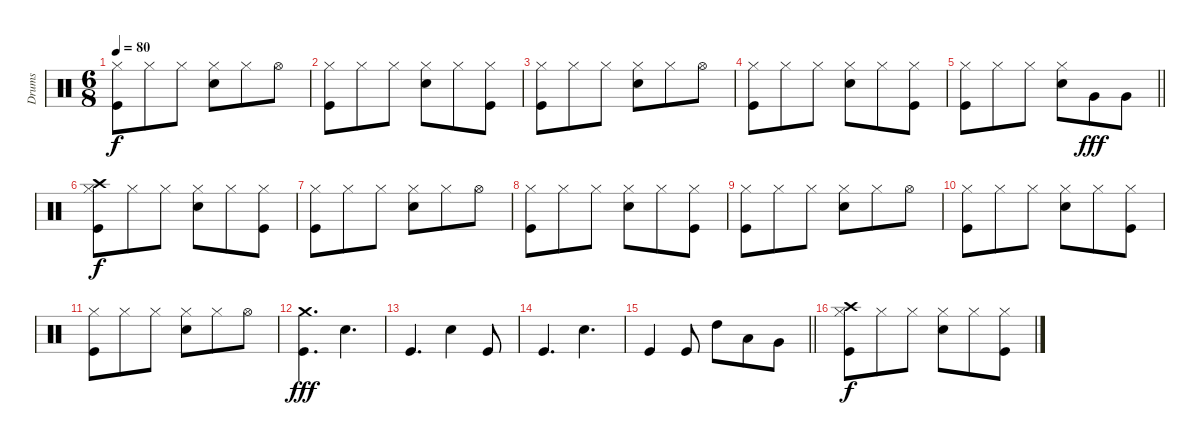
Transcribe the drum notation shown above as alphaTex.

\track ("Drums" "Drums") {instrument percussion}
\staff {score}
\articulation defaults
\ts (6 8)
\tempo 80
\clef neutral
\ks c
("Hi-Hat (closed)" "Kick (hit)").8{dy f} "Hi-Hat (closed)".8 "Hi-Hat (closed)".8 ("Hi-Hat (closed)" "Electric Snare (hit)").8 "Hi-Hat (closed)".8 "Hi-Hat (open)".8 |
("Hi-Hat (closed)" "Kick (hit)").8 "Hi-Hat (closed)".8 "Hi-Hat (closed)".8 ("Hi-Hat (closed)" "Electric Snare (hit)").8 "Hi-Hat (closed)".8 ("Hi-Hat (closed)" "Kick (hit)").8 |
("Hi-Hat (closed)" "Kick (hit)").8 "Hi-Hat (closed)".8 "Hi-Hat (closed)".8 ("Hi-Hat (closed)" "Electric Snare (hit)").8 "Hi-Hat (closed)".8 "Hi-Hat (open)".8 |
("Hi-Hat (closed)" "Kick (hit)").8 "Hi-Hat (closed)".8 "Hi-Hat (closed)".8 ("Hi-Hat (closed)" "Electric Snare (hit)").8 "Hi-Hat (closed)".8 ("Hi-Hat (closed)" "Kick (hit)").8 |
\barLineRight lightlight
("Hi-Hat (closed)" "Kick (hit)").8 "Hi-Hat (closed)".8 "Hi-Hat (closed)".8 ("Hi-Hat (closed)" "Electric Snare (hit)").8 "Very Low Tom (hit)".8{dy fff} "Very Low Tom (hit)".8 |
("Hi-Hat (closed)" "Kick (hit)" "Crash high (hit)").8{dy f} "Hi-Hat (closed)".8 "Hi-Hat (closed)".8 ("Hi-Hat (closed)" "Electric Snare (hit)").8 "Hi-Hat (closed)".8 ("Hi-Hat (closed)" "Kick (hit)").8 |
("Hi-Hat (closed)" "Kick (hit)").8 "Hi-Hat (closed)".8 "Hi-Hat (closed)".8 ("Hi-Hat (closed)" "Electric Snare (hit)").8 "Hi-Hat (closed)".8 "Hi-Hat (open)".8 |
("Hi-Hat (closed)" "Kick (hit)").8 "Hi-Hat (closed)".8 "Hi-Hat (closed)".8 ("Hi-Hat (closed)" "Electric Snare (hit)").8 "Hi-Hat (closed)".8 ("Hi-Hat (closed)" "Kick (hit)").8 |
("Hi-Hat (closed)" "Kick (hit)").8 "Hi-Hat (closed)".8 "Hi-Hat (closed)".8 ("Hi-Hat (closed)" "Electric Snare (hit)").8 "Hi-Hat (closed)".8 "Hi-Hat (open)".8 |
("Hi-Hat (closed)" "Kick (hit)").8 "Hi-Hat (closed)".8 "Hi-Hat (closed)".8 ("Hi-Hat (closed)" "Electric Snare (hit)").8 "Hi-Hat (closed)".8 ("Hi-Hat (closed)" "Kick (hit)").8 |
("Hi-Hat (closed)" "Kick (hit)").8 "Hi-Hat (closed)".8 "Hi-Hat (closed)".8 ("Hi-Hat (closed)" "Electric Snare (hit)").8 "Hi-Hat (closed)".8 "Hi-Hat (open)".8 |
("Crash medium (hit)" "Kick (hit)").4{d dy fff} "Electric Snare (hit)".4{d} |
"Kick (hit)".4{d} "Electric Snare (hit)".4 "Kick (hit)".8 |
"Kick (hit)".4{d} "Electric Snare (hit)".4{d} |
\barLineRight lightlight "Kick (hit)".4 "Kick (hit)".8 "High Tom (hit)".8 "Low Tom (hit)".8 "Very Low Tom (hit)".8
|
("Hi-Hat (closed)" "Kick (hit)" "Crash high (hit)").8{dy f} "Hi-Hat (closed)".8 "Hi-Hat (closed)".8 ("Hi-Hat (closed)" "Electric Snare (hit)").8 "Hi-Hat (closed)".8 ("Hi-Hat (closed)" "Kick (hit)").8
